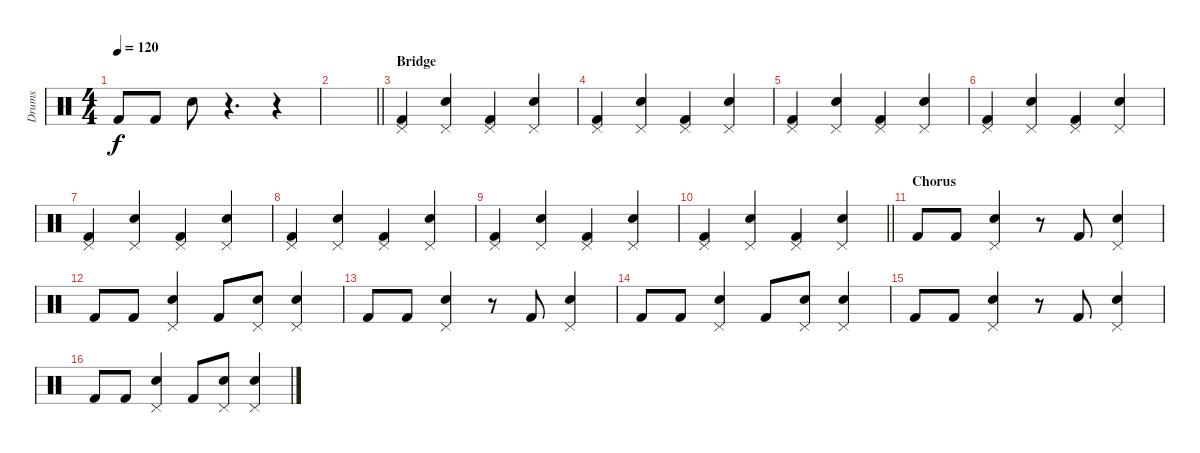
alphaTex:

\track ("Drums" "Drums") {instrument percussion}
\staff {score}
\articulation defaults
\ts (4 4)
\tempo 120
\clef neutral
\ks c "Kick (hit) 2".8{dy f} "Kick (hit) 2".8 "Snare (hit) 2".8
r.4{d} r.4 |
\barLineRight lightlight
|
\section ("" "Bridge")
("Pedal Hi-Hat (hit)" "Kick (hit) 2").4 ("Snare (hit) 2" "Pedal Hi-Hat (hit)").4 ("Pedal Hi-Hat (hit)" "Kick (hit) 2").4 ("Snare (hit) 2" "Pedal Hi-Hat (hit)").4 |
("Pedal Hi-Hat (hit)" "Kick (hit) 2").4 ("Snare (hit) 2" "Pedal Hi-Hat (hit)").4 ("Pedal Hi-Hat (hit)" "Kick (hit) 2").4 ("Snare (hit) 2" "Pedal Hi-Hat (hit)").4 |
("Pedal Hi-Hat (hit)" "Kick (hit) 2").4 ("Snare (hit) 2" "Pedal Hi-Hat (hit)").4 ("Pedal Hi-Hat (hit)" "Kick (hit) 2").4 ("Snare (hit) 2" "Pedal Hi-Hat (hit)").4 |
("Pedal Hi-Hat (hit)" "Kick (hit) 2").4 ("Snare (hit) 2" "Pedal Hi-Hat (hit)").4 ("Pedal Hi-Hat (hit)" "Kick (hit) 2").4 ("Snare (hit) 2" "Pedal Hi-Hat (hit)").4 |
("Pedal Hi-Hat (hit)" "Kick (hit) 2").4 ("Snare (hit) 2" "Pedal Hi-Hat (hit)").4 ("Pedal Hi-Hat (hit)" "Kick (hit) 2").4 ("Snare (hit) 2" "Pedal Hi-Hat (hit)").4 |
("Pedal Hi-Hat (hit)" "Kick (hit) 2").4 ("Snare (hit) 2" "Pedal Hi-Hat (hit)").4 ("Pedal Hi-Hat (hit)" "Kick (hit) 2").4 ("Snare (hit) 2" "Pedal Hi-Hat (hit)").4 |
("Pedal Hi-Hat (hit)" "Kick (hit) 2").4 ("Snare (hit) 2" "Pedal Hi-Hat (hit)").4 ("Pedal Hi-Hat (hit)" "Kick (hit) 2").4 ("Snare (hit) 2" "Pedal Hi-Hat (hit)").4 |
\barLineRight lightlight
("Pedal Hi-Hat (hit)" "Kick (hit) 2").4 ("Snare (hit) 2" "Pedal Hi-Hat (hit)").4 ("Pedal Hi-Hat (hit)" "Kick (hit) 2").4 ("Snare (hit) 2" "Pedal Hi-Hat (hit)").4 |
\section ("" "Chorus")
"Kick (hit) 2".8 "Kick (hit) 2".8 ("Snare (hit) 2" "Pedal Hi-Hat (hit)").4 r.8 "Kick (hit) 2".8 ("Snare (hit) 2" "Pedal Hi-Hat (hit)").4 |
"Kick (hit) 2".8 "Kick (hit) 2".8 ("Snare (hit) 2" "Pedal Hi-Hat (hit)").4 "Kick (hit) 2".8 ("Snare (hit) 2" "Pedal Hi-Hat (hit)").8 ("Snare (hit) 2" "Pedal Hi-Hat (hit)").4 |
"Kick (hit) 2".8 "Kick (hit) 2".8 ("Snare (hit) 2" "Pedal Hi-Hat (hit)").4 r.8 "Kick (hit) 2".8 ("Snare (hit) 2" "Pedal Hi-Hat (hit)").4 |
"Kick (hit) 2".8 "Kick (hit) 2".8 ("Snare (hit) 2" "Pedal Hi-Hat (hit)").4 "Kick (hit) 2".8 ("Snare (hit) 2" "Pedal Hi-Hat (hit)").8 ("Snare (hit) 2" "Pedal Hi-Hat (hit)").4 |
"Kick (hit) 2".8 "Kick (hit) 2".8 ("Snare (hit) 2" "Pedal Hi-Hat (hit)").4 r.8 "Kick (hit) 2".8 ("Snare (hit) 2" "Pedal Hi-Hat (hit)").4 |
"Kick (hit) 2".8 "Kick (hit) 2".8 ("Snare (hit) 2" "Pedal Hi-Hat (hit)").4 "Kick (hit) 2".8 ("Snare (hit) 2" "Pedal Hi-Hat (hit)").8 ("Snare (hit) 2" "Pedal Hi-Hat (hit)").4
